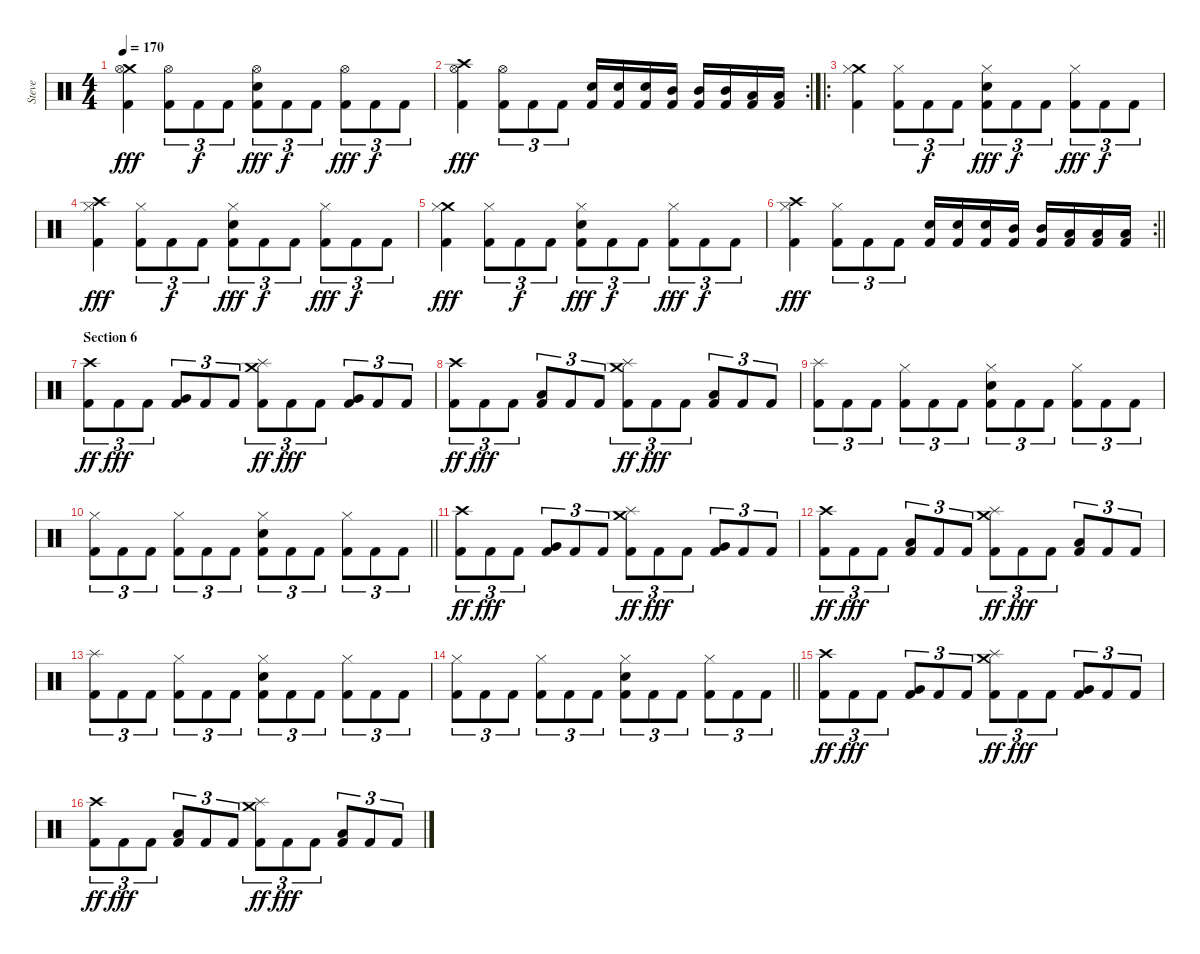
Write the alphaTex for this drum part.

\track ("Steve" "Steve") {instrument percussion}
\staff {score}
\articulation defaults
\ts (4 4)
\tempo 170
\clef neutral
\ks c
("Crash medium (hit)" "Hi-Hat (open)" "Kick (hit) 2").4{dy fff} ("Hi-Hat (open)" "Kick (hit) 2").8{tu (3 2)} "Kick (hit) 2".8{tu (3 2) dy f} "Kick (hit) 2".8{tu (3 2)} ("Snare (hit) 2" "Hi-Hat (open)" "Kick (hit) 2").8{tu (3 2) dy fff} "Kick (hit) 2".8{tu (3 2) dy f} "Kick (hit) 2".8{tu (3 2)} ("Hi-Hat (open)" "Kick (hit) 2").8{tu (3 2) dy fff} "Kick (hit) 2".8{tu (3 2) dy f} "Kick (hit) 2".8{tu (3 2)} |
\rc 2
("Crash high (hit)" "Hi-Hat (open)" "Kick (hit) 2").4{dy fff} ("Hi-Hat (open)" "Kick (hit) 2").8{tu (3 2)} "Kick (hit) 2".8{tu (3 2)} "Kick (hit) 2".8{tu (3 2)} ("Snare (hit) 2" "Kick (hit) 2").16 ("Snare (hit) 2" "Kick (hit) 2").16 ("Snare (hit) 2" "Kick (hit) 2").16 ("Mid Tom (hit)" "Kick (hit) 2").16 ("Mid Tom (hit)" "Kick (hit) 2").16 ("Mid Tom (hit)" "Kick (hit) 2").16 ("Low Tom (hit)" "Kick (hit) 2").16 ("Low Tom (hit)" "Kick (hit) 2").16 |
\ro
("Crash medium (hit)" "Hi-Hat (closed)" "Kick (hit) 2").4 ("Hi-Hat (closed)" "Kick (hit) 2").8{tu (3 2)} "Kick (hit) 2".8{tu (3 2) dy f} "Kick (hit) 2".8{tu (3 2)} ("Snare (hit) 2" "Hi-Hat (closed)" "Kick (hit) 2").8{tu (3 2) dy fff} "Kick (hit) 2".8{tu (3 2) dy f} "Kick (hit) 2".8{tu (3 2)} ("Hi-Hat (closed)" "Kick (hit) 2").8{tu (3 2) dy fff} "Kick (hit) 2".8{tu (3 2) dy f} "Kick (hit) 2".8{tu (3 2)} |
("Crash high (hit)" "Hi-Hat (closed)" "Kick (hit) 2").4{dy fff} ("Hi-Hat (closed)" "Kick (hit) 2").8{tu (3 2)} "Kick (hit) 2".8{tu (3 2) dy f} "Kick (hit) 2".8{tu (3 2)} ("Snare (hit) 2" "Hi-Hat (closed)" "Kick (hit) 2").8{tu (3 2) dy fff} "Kick (hit) 2".8{tu (3 2) dy f} "Kick (hit) 2".8{tu (3 2)} ("Hi-Hat (closed)" "Kick (hit) 2").8{tu (3 2) dy fff} "Kick (hit) 2".8{tu (3 2) dy f} "Kick (hit) 2".8{tu (3 2)} |
("Crash medium (hit)" "Hi-Hat (closed)" "Kick (hit) 2").4{dy fff} ("Hi-Hat (closed)" "Kick (hit) 2").8{tu (3 2)} "Kick (hit) 2".8{tu (3 2) dy f} "Kick (hit) 2".8{tu (3 2)} ("Snare (hit) 2" "Hi-Hat (closed)" "Kick (hit) 2").8{tu (3 2) dy fff} "Kick (hit) 2".8{tu (3 2) dy f} "Kick (hit) 2".8{tu (3 2)} ("Hi-Hat (closed)" "Kick (hit) 2").8{tu (3 2) dy fff} "Kick (hit) 2".8{tu (3 2) dy f} "Kick (hit) 2".8{tu (3 2)} |
\rc 2
\barLineRight lightlight
("Crash high (hit)" "Hi-Hat (closed)" "Kick (hit) 2").4{dy fff} ("Hi-Hat (closed)" "Kick (hit) 2").8{tu (3 2)} "Kick (hit) 2".8{tu (3 2)} "Kick (hit) 2".8{tu (3 2)} ("Snare (hit) 2" "Kick (hit) 2").16 ("Snare (hit) 2" "Kick (hit) 2").16 ("Snare (hit) 2" "Kick (hit) 2").16 ("Mid Tom (hit)" "Kick (hit) 2").16 ("Mid Tom (hit)" "Kick (hit) 2").16 ("Low Tom (hit)" "Kick (hit) 2").16 ("Low Tom (hit)" "Kick (hit) 2").16 ("Low Tom (hit)" "Kick (hit) 2").16 |
\section ("" "Section 6")
("Crash high (hit)" "Kick (hit) 2").8{tu (3 2) dy ff} "Kick (hit) 2".8{tu (3 2) dy fff} "Kick (hit) 2".8{tu (3 2)} ("Very Low Tom (hit)" "Kick (hit) 2").8{tu (3 2)} "Kick (hit) 2".8{tu (3 2)} "Kick (hit) 2".8{tu (3 2)} ("Crash medium (hit)" "Splash (hit)" "Kick (hit) 2").8{tu (3 2) dy ff} "Kick (hit) 2".8{tu (3 2) dy fff} "Kick (hit) 2".8{tu (3 2)} ("Very Low Tom (hit)" "Kick (hit) 2").8{tu (3 2)} "Kick (hit) 2".8{tu (3 2)} "Kick (hit) 2".8{tu (3 2)} |
("Crash high (hit)" "Kick (hit) 2").8{tu (3 2) dy ff} "Kick (hit) 2".8{tu (3 2) dy fff} "Kick (hit) 2".8{tu (3 2)} ("Low Tom (hit)" "Kick (hit) 2").8{tu (3 2)} "Kick (hit) 2".8{tu (3 2)} "Kick (hit) 2".8{tu (3 2)} ("Crash medium (hit)" "Splash (hit)" "Kick (hit) 2").8{tu (3 2) dy ff} "Kick (hit) 2".8{tu (3 2) dy fff} "Kick (hit) 2".8{tu (3 2)} ("Low Tom (hit)" "Kick (hit) 2").8{tu (3 2)} "Kick (hit) 2".8{tu (3 2)} "Kick (hit) 2".8{tu (3 2)} |
("Splash (hit)" "Kick (hit) 2").8{tu (3 2)} "Kick (hit) 2".8{tu (3 2)} "Kick (hit) 2".8{tu (3 2)} ("Hi-Hat (closed)" "Kick (hit) 2").8{tu (3 2)} "Kick (hit) 2".8{tu (3 2)} "Kick (hit) 2".8{tu (3 2)} ("Snare (hit) 2" "Hi-Hat (closed)" "Kick (hit) 2").8{tu (3 2)} "Kick (hit) 2".8{tu (3 2)} "Kick (hit) 2".8{tu (3 2)} ("Hi-Hat (closed)" "Kick (hit) 2").8{tu (3 2)} "Kick (hit) 2".8{tu (3 2)} "Kick (hit) 2".8{tu (3 2)} |
\barLineRight lightlight
("Hi-Hat (closed)" "Kick (hit) 2").8{tu (3 2)} "Kick (hit) 2".8{tu (3 2)} "Kick (hit) 2".8{tu (3 2)} ("Hi-Hat (closed)" "Kick (hit) 2").8{tu (3 2)} "Kick (hit) 2".8{tu (3 2)} "Kick (hit) 2".8{tu (3 2)} ("Snare (hit) 2" "Hi-Hat (closed)" "Kick (hit) 2").8{tu (3 2)} "Kick (hit) 2".8{tu (3 2)} "Kick (hit) 2".8{tu (3 2)} ("Hi-Hat (closed)" "Kick (hit) 2").8{tu (3 2)} "Kick (hit) 2".8{tu (3 2)} "Kick (hit) 2".8{tu (3 2)} |
("Crash high (hit)" "Kick (hit) 2").8{tu (3 2) dy ff} "Kick (hit) 2".8{tu (3 2) dy fff} "Kick (hit) 2".8{tu (3 2)} ("Very Low Tom (hit)" "Kick (hit) 2").8{tu (3 2)} "Kick (hit) 2".8{tu (3 2)} "Kick (hit) 2".8{tu (3 2)} ("Crash medium (hit)" "Splash (hit)" "Kick (hit) 2").8{tu (3 2) dy ff} "Kick (hit) 2".8{tu (3 2) dy fff} "Kick (hit) 2".8{tu (3 2)} ("Very Low Tom (hit)" "Kick (hit) 2").8{tu (3 2)} "Kick (hit) 2".8{tu (3 2)} "Kick (hit) 2".8{tu (3 2)} |
("Crash high (hit)" "Kick (hit) 2").8{tu (3 2) dy ff} "Kick (hit) 2".8{tu (3 2) dy fff} "Kick (hit) 2".8{tu (3 2)} ("Low Tom (hit)" "Kick (hit) 2").8{tu (3 2)} "Kick (hit) 2".8{tu (3 2)} "Kick (hit) 2".8{tu (3 2)} ("Crash medium (hit)" "Splash (hit)" "Kick (hit) 2").8{tu (3 2) dy ff} "Kick (hit) 2".8{tu (3 2) dy fff} "Kick (hit) 2".8{tu (3 2)} ("Low Tom (hit)" "Kick (hit) 2").8{tu (3 2)} "Kick (hit) 2".8{tu (3 2)} "Kick (hit) 2".8{tu (3 2)} |
("Splash (hit)" "Kick (hit) 2").8{tu (3 2)} "Kick (hit) 2".8{tu (3 2)} "Kick (hit) 2".8{tu (3 2)} ("Hi-Hat (closed)" "Kick (hit) 2").8{tu (3 2)} "Kick (hit) 2".8{tu (3 2)} "Kick (hit) 2".8{tu (3 2)} ("Snare (hit) 2" "Hi-Hat (closed)" "Kick (hit) 2").8{tu (3 2)} "Kick (hit) 2".8{tu (3 2)} "Kick (hit) 2".8{tu (3 2)} ("Hi-Hat (closed)" "Kick (hit) 2").8{tu (3 2)} "Kick (hit) 2".8{tu (3 2)} "Kick (hit) 2".8{tu (3 2)} |
\barLineRight lightlight
("Hi-Hat (closed)" "Kick (hit) 2").8{tu (3 2)} "Kick (hit) 2".8{tu (3 2)} "Kick (hit) 2".8{tu (3 2)} ("Hi-Hat (closed)" "Kick (hit) 2").8{tu (3 2)} "Kick (hit) 2".8{tu (3 2)} "Kick (hit) 2".8{tu (3 2)} ("Snare (hit) 2" "Hi-Hat (closed)" "Kick (hit) 2").8{tu (3 2)} "Kick (hit) 2".8{tu (3 2)} "Kick (hit) 2".8{tu (3 2)} ("Hi-Hat (closed)" "Kick (hit) 2").8{tu (3 2)} "Kick (hit) 2".8{tu (3 2)} "Kick (hit) 2".8{tu (3 2)} |
("Crash high (hit)" "Kick (hit) 2").8{tu (3 2) dy ff} "Kick (hit) 2".8{tu (3 2) dy fff} "Kick (hit) 2".8{tu (3 2)} ("Very Low Tom (hit)" "Kick (hit) 2").8{tu (3 2)} "Kick (hit) 2".8{tu (3 2)} "Kick (hit) 2".8{tu (3 2)} ("Crash medium (hit)" "Splash (hit)" "Kick (hit) 2").8{tu (3 2) dy ff} "Kick (hit) 2".8{tu (3 2) dy fff} "Kick (hit) 2".8{tu (3 2)} ("Very Low Tom (hit)" "Kick (hit) 2").8{tu (3 2)} "Kick (hit) 2".8{tu (3 2)} "Kick (hit) 2".8{tu (3 2)} |
("Crash high (hit)" "Kick (hit) 2").8{tu (3 2) dy ff} "Kick (hit) 2".8{tu (3 2) dy fff} "Kick (hit) 2".8{tu (3 2)} ("Low Tom (hit)" "Kick (hit) 2").8{tu (3 2)} "Kick (hit) 2".8{tu (3 2)} "Kick (hit) 2".8{tu (3 2)} ("Crash medium (hit)" "Splash (hit)" "Kick (hit) 2").8{tu (3 2) dy ff} "Kick (hit) 2".8{tu (3 2) dy fff} "Kick (hit) 2".8{tu (3 2)} ("Low Tom (hit)" "Kick (hit) 2").8{tu (3 2)} "Kick (hit) 2".8{tu (3 2)} "Kick (hit) 2".8{tu (3 2)}
